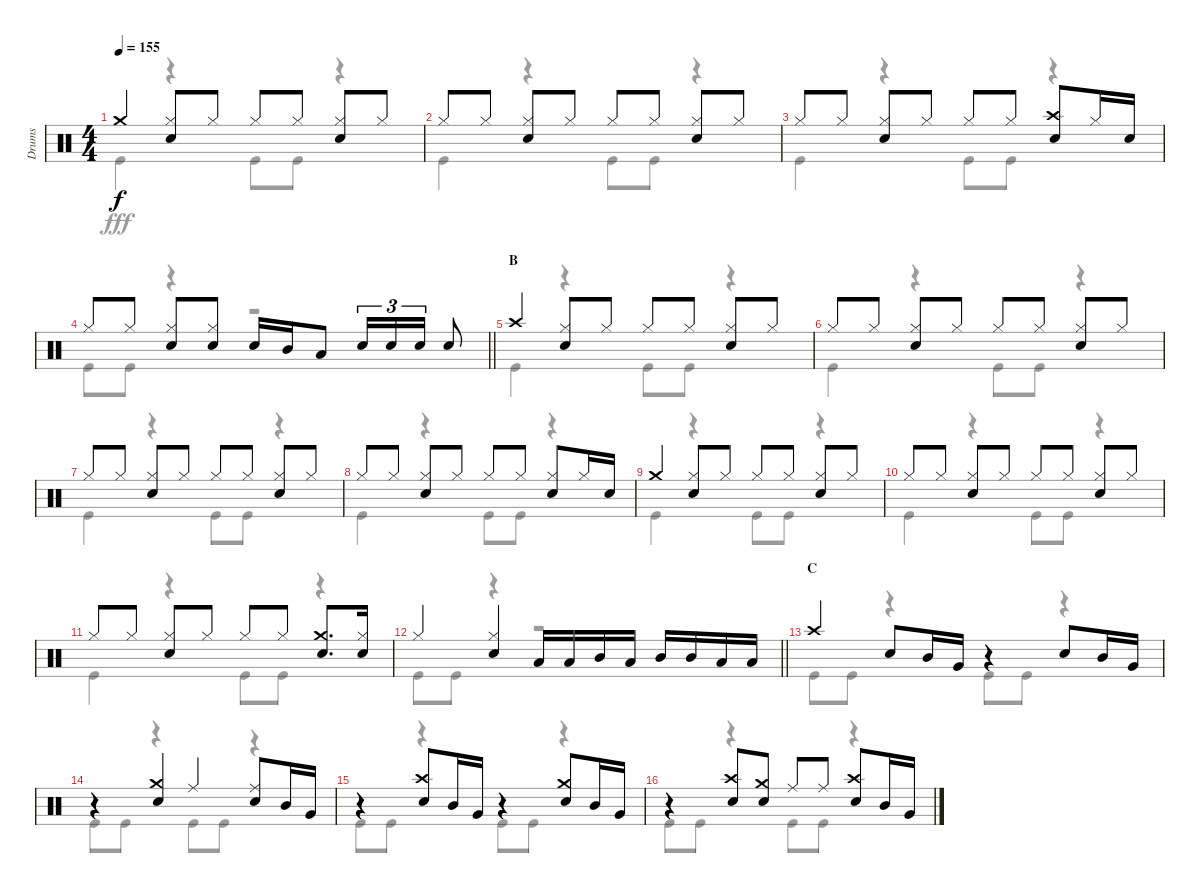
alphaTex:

\track ("Drums" "Drums") {instrument percussion}
\staff {score}
\articulation defaults
\voice
\ts (4 4)
\tempo 155
\clef neutral
\ks c "Crash medium (hit)".4{dy f}
("Hi-Hat (closed)" "Snare (hit) 2").8 "Hi-Hat (closed)".8 "Hi-Hat (closed)".8 "Hi-Hat (closed)".8 ("Hi-Hat (closed)" "Snare (hit) 2").8 "Hi-Hat (closed)".8 |
"Hi-Hat (closed)".8 "Hi-Hat (closed)".8 ("Hi-Hat (closed)" "Snare (hit) 2").8 "Hi-Hat (closed)".8 "Hi-Hat (closed)".8 "Hi-Hat (closed)".8 ("Hi-Hat (closed)" "Snare (hit) 2").8 "Hi-Hat (closed)".8 |
"Hi-Hat (closed)".8 "Hi-Hat (closed)".8 ("Hi-Hat (closed)" "Snare (hit) 2").8 "Hi-Hat (closed)".8 "Hi-Hat (closed)".8 "Hi-Hat (closed)".8 ("Crash high (hit)" "Snare (hit) 2").8 "Hi-Hat (closed)".16 "Snare (hit) 2".16 |
\barLineRight lightlight "Hi-Hat (closed)".8 "Hi-Hat (closed)".8
("Hi-Hat (closed)" "Snare (hit) 2").8 ("Hi-Hat (closed)" "Snare (hit) 2").8 "Snare (hit) 2".16 "Mid Tom (hit)".16 "Low Tom (hit)".8 "Snare (hit) 2".16{tu (3 2)} "Snare (hit) 2".16{tu (3 2)} "Snare (hit) 2".16{tu (3 2)} "Snare (hit) 2".8 |
\section ("" "B")
"Crash high (hit)".4 ("Hi-Hat (closed)" "Snare (hit) 2").8 "Hi-Hat (closed)".8 "Hi-Hat (closed)".8 "Hi-Hat (closed)".8 ("Hi-Hat (closed)" "Snare (hit) 2").8 "Hi-Hat (closed)".8 |
"Hi-Hat (closed)".8 "Hi-Hat (closed)".8 ("Hi-Hat (closed)" "Snare (hit) 2").8 "Hi-Hat (closed)".8 "Hi-Hat (closed)".8 "Hi-Hat (closed)".8 ("Hi-Hat (closed)" "Snare (hit) 2").8 "Hi-Hat (closed)".8 |
"Hi-Hat (closed)".8 "Hi-Hat (closed)".8 ("Hi-Hat (closed)" "Snare (hit) 2").8 "Hi-Hat (closed)".8 "Hi-Hat (closed)".8 "Hi-Hat (closed)".8 ("Hi-Hat (closed)" "Snare (hit) 2").8 "Hi-Hat (closed)".8 |
"Hi-Hat (closed)".8 "Hi-Hat (closed)".8 ("Hi-Hat (closed)" "Snare (hit) 2").8 "Hi-Hat (closed)".8 "Hi-Hat (closed)".8 "Hi-Hat (closed)".8 ("Hi-Hat (closed)" "Snare (hit) 2").8 "Hi-Hat (closed)".16 "Snare (hit) 2".16 |
"Crash medium (hit)".4 ("Hi-Hat (closed)" "Snare (hit) 2").8 "Hi-Hat (closed)".8 "Hi-Hat (closed)".8 "Hi-Hat (closed)".8 ("Hi-Hat (closed)" "Snare (hit) 2").8 "Hi-Hat (closed)".8 |
"Hi-Hat (closed)".8 "Hi-Hat (closed)".8 ("Hi-Hat (closed)" "Snare (hit) 2").8 "Hi-Hat (closed)".8 "Hi-Hat (closed)".8 "Hi-Hat (closed)".8 ("Hi-Hat (closed)" "Snare (hit) 2").8 "Hi-Hat (closed)".8 |
"Hi-Hat (closed)".8 "Hi-Hat (closed)".8 ("Hi-Hat (closed)" "Snare (hit) 2").8 "Hi-Hat (closed)".8 "Hi-Hat (closed)".8 "Hi-Hat (closed)".8 ("Crash medium (hit)" "Snare (hit) 2").8{d} ("Hi-Hat (closed)" "Snare (hit) 2").16 |
\barLineRight lightlight "Hi-Hat (closed)".4
("Hi-Hat (closed)" "Snare (hit) 2").4 "Low Tom (hit)".16 "Low Tom (hit)".16 "Mid Tom (hit)".16 "Low Tom (hit)".16 "Mid Tom (hit)".16 "Mid Tom (hit)".16 "Low Tom (hit)".16 "Low Tom (hit)".16 |
\section ("" "C")
"Crash high (hit)".4 "Snare (hit) 2".8 "Mid Tom (hit)".16 "Very Low Tom (hit)".16 r.4 "Snare (hit) 2".8 "Mid Tom (hit)".16 "Very Low Tom (hit)".16 |
r.4 ("Crash medium (hit)" "Snare (hit) 2").4 "Ride (middle)".4 ("Ride (middle)" "Snare (hit) 2").8 "Mid Tom (hit)".16 "Very Low Tom (hit)".16 |
r.4 ("Crash high (hit)" "Snare (hit) 2").8 "Mid Tom (hit)".16 "Very Low Tom (hit)".16 r.4 ("Crash medium (hit)" "Snare (hit) 2").8 "Mid Tom (hit)".16 "Very Low Tom (hit)".16 |
r.4 ("Crash high (hit)" "Snare (hit) 2").8 ("Crash medium (hit)" "Snare (hit) 2").8 "Ride (middle)".8 "Ride (middle)".8 ("Crash high (hit)" "Snare (hit) 2").8 "Mid Tom (hit)".16 "Very Low Tom (hit)".16
\voice
\clef neutral
\ottava regular
\simile none
\ks c "Kick (hit)".4{dy fff}
r.4 "Kick (hit)".8 "Kick (hit)".8 r.4 |
"Kick (hit)".4 r.4 "Kick (hit)".8 "Kick (hit)".8 r.4 |
"Kick (hit)".4 r.4 "Kick (hit)".8 "Kick (hit)".8 r.4 |
\barLineRight lightlight "Kick (hit)".8 "Kick (hit)".8
r.4 r.2 |
"Kick (hit)".4 r.4 "Kick (hit)".8 "Kick (hit)".8 r.4 |
"Kick (hit)".4 r.4 "Kick (hit)".8 "Kick (hit)".8 r.4 |
"Kick (hit)".4 r.4 "Kick (hit)".8 "Kick (hit)".8 r.4 |
"Kick (hit)".4 r.4 "Kick (hit)".8 "Kick (hit)".8 r.4 |
"Kick (hit)".4 r.4 "Kick (hit)".8 "Kick (hit)".8 r.4 |
"Kick (hit)".4 r.4 "Kick (hit)".8 "Kick (hit)".8 r.4 |
"Kick (hit)".4 r.4 "Kick (hit)".8 "Kick (hit)".8 r.4 |
\barLineRight lightlight "Kick (hit)".8 "Kick (hit)".8
r.4 r.2 |
"Kick (hit)".8 "Kick (hit)".8 r.4 "Kick (hit)".8 "Kick (hit)".8 r.4 |
"Kick (hit)".8 "Kick (hit)".8 r.4 "Kick (hit)".8 "Kick (hit)".8 r.4 |
"Kick (hit)".8 "Kick (hit)".8 r.4 "Kick (hit)".8 "Kick (hit)".8 r.4 |
"Kick (hit)".8 "Kick (hit)".8 r.4 "Kick (hit)".8 "Kick (hit)".8 r.4
